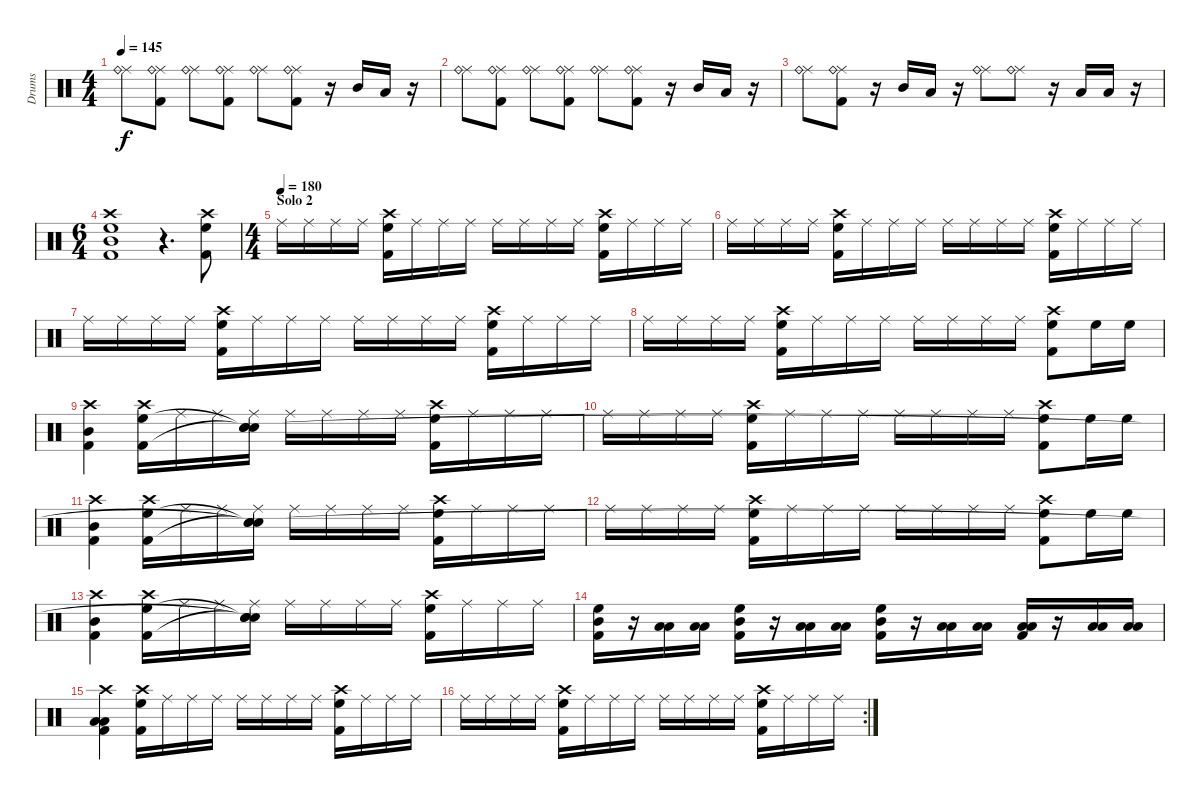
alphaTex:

\track ("Drums" "Drums") {instrument percussion}
\staff {score}
\articulation defaults
\ts (4 4)
\tempo 145
\clef neutral
\ks c
("Ride (middle)" "Ride (bell)").8{dy f} ("Ride (middle)" "Ride (bell)" "Kick (hit) 2").8 ("Ride (middle)" "Ride (bell)").8 ("Ride (middle)" "Ride (bell)" "Kick (hit) 2").8 ("Ride (middle)" "Ride (bell)").8 ("Ride (middle)" "Ride (bell)" "Kick (hit) 2").8 r.16 "Mid Tom (hit)".16 "Low Tom (hit)".16 r.16 |
("Ride (middle)" "Ride (bell)").8 ("Ride (middle)" "Ride (bell)" "Kick (hit) 2").8 ("Ride (middle)" "Ride (bell)").8 ("Ride (middle)" "Ride (bell)" "Kick (hit) 2").8 ("Ride (middle)" "Ride (bell)").8 ("Ride (middle)" "Ride (bell)" "Kick (hit) 2").8 r.16 "Mid Tom (hit)".16 "Low Tom (hit)".16 r.16 |
("Ride (middle)" "Ride (bell)").8 ("Ride (middle)" "Ride (bell)" "Kick (hit) 2").8 r.16 "Mid Tom (hit)".16 "Low Tom (hit)".16 r.16 ("Ride (middle)" "Ride (bell)").8 ("Ride (middle)" "Ride (bell)").8 r.16 "Low Tom (hit)".16 "Low Tom (hit)".16 r.16 |
\ts (6 4)
("High Floor Tom (hit)" "Mid Tom (hit)" "Crash high (hit)" "Kick (hit) 2").1 r.4{d} ("Crash high (hit)" "High Floor Tom (hit)" "Kick (hit) 2").8 |
\ts (4 4)
\section ("" "Solo 2")
\tempo (180)
"Ride (middle)".16 "Ride (middle)".16 "Ride (middle)".16 "Ride (middle)".16 ("Crash high (hit)" "High Floor Tom (hit)" "Kick (hit) 2").16 "Ride (middle)".16 "Ride (middle)".16 "Ride (middle)".16 "Ride (middle)".16 "Ride (middle)".16 "Ride (middle)".16 "Ride (middle)".16 ("Crash high (hit)" "High Floor Tom (hit)" "Kick (hit) 2").16 "Ride (middle)".16 "Ride (middle)".16 "Ride (middle)".16 |
"Ride (middle)".16 "Ride (middle)".16 "Ride (middle)".16 "Ride (middle)".16 ("Crash high (hit)" "High Floor Tom (hit)" "Kick (hit) 2").16 "Ride (middle)".16 "Ride (middle)".16 "Ride (middle)".16 "Ride (middle)".16 "Ride (middle)".16 "Ride (middle)".16 "Ride (middle)".16 ("Crash high (hit)" "High Floor Tom (hit)" "Kick (hit) 2").16 "Ride (middle)".16 "Ride (middle)".16 "Ride (middle)".16 |
"Ride (middle)".16 "Ride (middle)".16 "Ride (middle)".16 "Ride (middle)".16 ("Crash high (hit)" "High Floor Tom (hit)" "Kick (hit) 2").16 "Ride (middle)".16 "Ride (middle)".16 "Ride (middle)".16 "Ride (middle)".16 "Ride (middle)".16 "Ride (middle)".16 "Ride (middle)".16 ("Crash high (hit)" "High Floor Tom (hit)" "Kick (hit) 2").16 "Ride (middle)".16 "Ride (middle)".16 "Ride (middle)".16 |
"Ride (middle)".16 "Ride (middle)".16 "Ride (middle)".16 "Ride (middle)".16 ("Crash high (hit)" "High Floor Tom (hit)" "Kick (hit) 2").16 "Ride (middle)".16 "Ride (middle)".16 "Ride (middle)".16 "Ride (middle)".16 "Ride (middle)".16 "Ride (middle)".16 "Ride (middle)".16 ("Crash high (hit)" "High Floor Tom (hit)" "Kick (hit) 2").8 "High Floor Tom (hit)".16 "High Floor Tom (hit)".16 |
("Crash high (hit)" "Mid Tom (hit)" "Kick (hit) 2").4 ("Crash high (hit)" "High Floor Tom (hit)" "Kick (hit) 2").16 "Ride (middle)".16 "Ride (middle)".16 ("Ride (middle)" "Snare (hit)"{t} "Snare (hit)"{t} "Snare (hit)").16 "Ride (middle)".16 "Ride (middle)".16 "Ride (middle)".16 "Ride (middle)".16 ("Crash high (hit)" "High Floor Tom (hit)" "Kick (hit) 2").16 "Ride (middle)".16 "Ride (middle)".16 "Ride (middle)".16 |
"Ride (middle)".16 "Ride (middle)".16 "Ride (middle)".16 "Ride (middle)".16 ("Crash high (hit)" "High Floor Tom (hit)" "Kick (hit) 2").16 "Ride (middle)".16 "Ride (middle)".16 "Ride (middle)".16 "Ride (middle)".16 "Ride (middle)".16 "Ride (middle)".16 "Ride (middle)".16 ("Crash high (hit)" "High Floor Tom (hit)" "Kick (hit) 2").8 "High Floor Tom (hit)".16 "High Floor Tom (hit)".16 |
("Crash high (hit)" "Mid Tom (hit)" "Kick (hit) 2").4 ("Crash high (hit)" "High Floor Tom (hit)" "Kick (hit) 2").16 "Ride (middle)".16 "Ride (middle)".16 ("Ride (middle)" "Snare (hit)"{t} "Snare (hit)"{t} "Snare (hit)"{t}).16 "Ride (middle)".16 "Ride (middle)".16 "Ride (middle)".16 "Ride (middle)".16 ("Crash high (hit)" "High Floor Tom (hit)" "Kick (hit) 2").16 "Ride (middle)".16 "Ride (middle)".16 "Ride (middle)".16 |
"Ride (middle)".16 "Ride (middle)".16 "Ride (middle)".16 "Ride (middle)".16 ("Crash high (hit)" "High Floor Tom (hit)" "Kick (hit) 2").16 "Ride (middle)".16 "Ride (middle)".16 "Ride (middle)".16 "Ride (middle)".16 "Ride (middle)".16 "Ride (middle)".16 "Ride (middle)".16 ("Crash high (hit)" "High Floor Tom (hit)" "Kick (hit) 2").8 "High Floor Tom (hit)".16 "High Floor Tom (hit)".16 |
("Crash high (hit)" "Mid Tom (hit)" "Kick (hit) 2").4 ("Crash high (hit)" "High Floor Tom (hit)" "Kick (hit) 2").16 "Ride (middle)".16 "Ride (middle)".16 ("Ride (middle)" "Snare (hit)"{t} "Snare (hit)"{t} "Snare (hit)"{t}).16 "Ride (middle)".16 "Ride (middle)".16 "Ride (middle)".16 "Ride (middle)".16 ("Crash high (hit)" "High Floor Tom (hit)" "Kick (hit) 2").16 "Ride (middle)".16 "Ride (middle)".16 "Ride (middle)".16 |
("High Floor Tom (hit)" "Mid Tom (hit)" "Kick (hit) 2").16 r.16 ("Low Tom (hit)" "Low Tom (hit)").16 ("Low Tom (hit)" "Low Tom (hit)").16 ("High Floor Tom (hit)" "Mid Tom (hit)" "Kick (hit) 2").16 r.16 ("Low Tom (hit)" "Low Tom (hit)").16 ("Low Tom (hit)" "Low Tom (hit)").16 ("High Floor Tom (hit)" "Mid Tom (hit)" "Kick (hit) 2").16 r.16 ("Low Tom (hit)" "Low Tom (hit)").16 ("Low Tom (hit)" "Low Tom (hit)").16 ("Low Floor Tom (hit)" "Low Floor Tom (hit)" "Kick (hit) 2").16 r.16 ("Low Floor Tom (hit)" "Low Floor Tom (hit)").16 ("Low Floor Tom (hit)" "Low Floor Tom (hit)").16 |
("Low Tom (hit)" "Low Tom (hit)" "Kick (hit) 2" "Crash high (hit)").4 ("Crash high (hit)" "High Floor Tom (hit)" "Kick (hit) 2").16 "Ride (middle)".16 "Ride (middle)".16 "Ride (middle)".16 "Ride (middle)".16 "Ride (middle)".16 "Ride (middle)".16 "Ride (middle)".16 ("Crash high (hit)" "High Floor Tom (hit)" "Kick (hit) 2").16 "Ride (middle)".16 "Ride (middle)".16 "Ride (middle)".16 |
\rc 2 "Ride (middle)".16 "Ride (middle)".16 "Ride (middle)".16 "Ride (middle)".16
("Crash high (hit)" "High Floor Tom (hit)" "Kick (hit) 2").16 "Ride (middle)".16 "Ride (middle)".16 "Ride (middle)".16 "Ride (middle)".16 "Ride (middle)".16 "Ride (middle)".16 "Ride (middle)".16 ("Crash high (hit)" "High Floor Tom (hit)" "Kick (hit) 2").16 "Ride (middle)".16 "Ride (middle)".16 "Ride (middle)".16
